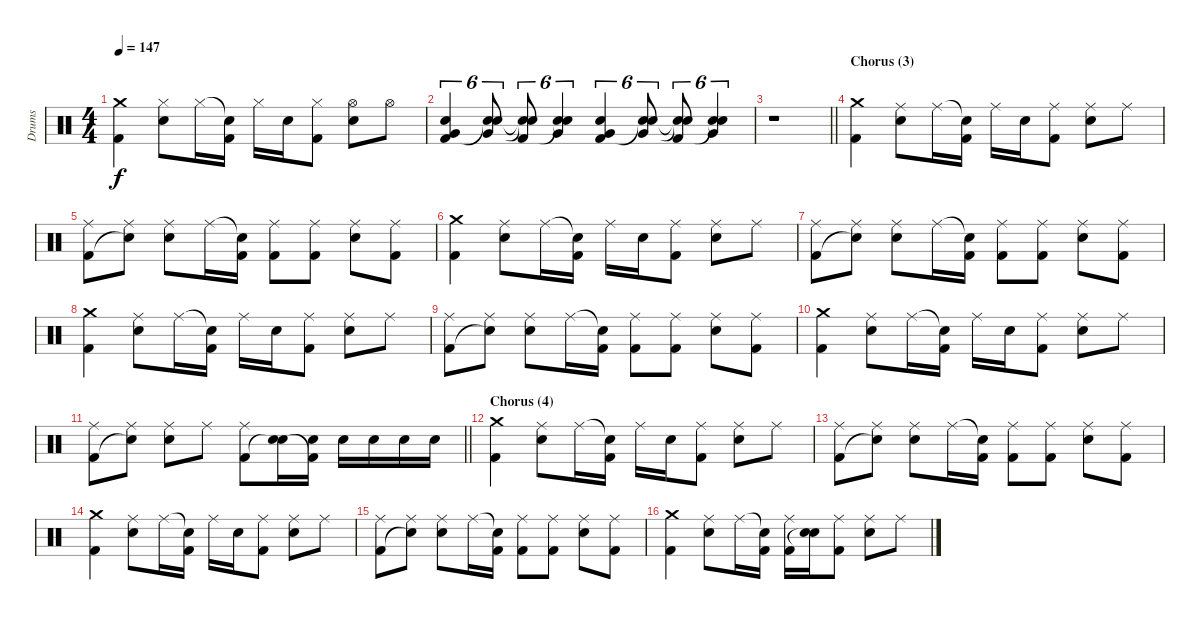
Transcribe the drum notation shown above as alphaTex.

\track ("Drums" "Drums") {instrument percussion}
\staff {score}
\articulation defaults
\ts (4 4)
\tempo 147
\clef neutral
\ks aminor
("Crash medium (hit)" "Kick (hit) 2").4{dy f} ("Hi-Hat (closed)" "Electric Snare (hit)").8 "Hi-Hat (closed)".16 ("Snare (hit)"{t} "Kick (hit) 2").16 "Hi-Hat (closed)".16 "Electric Snare (hit)".16 ("Hi-Hat (closed)" "Kick (hit) 2").8 ("Hi-Hat (open)" "Electric Snare (hit)").8 "Hi-Hat (open)".8 |
("Electric Snare (hit)" "Very Low Tom (hit)" "Kick (hit) 2").4{tu (6 4)} ("Electric Snare (hit)" "Very Low Tom (hit)" "Snare (hit)"{t}).8{tu (6 4)} ("Snare (hit)"{t} "Snare (hit)"{t} "Kick (hit) 2").8{tu (6 4)} ("Electric Snare (hit)" "Very Low Tom (hit)" "Snare (hit)"{t}).4{tu (6 4)} ("Electric Snare (hit)" "Very Low Tom (hit)" "Kick (hit) 2").4{tu (6 4)} ("Electric Snare (hit)" "Very Low Tom (hit)" "Snare (hit)"{t}).8{tu (6 4)} ("Snare (hit)"{t} "Snare (hit)"{t} "Kick (hit) 2").8{tu (6 4)} ("Electric Snare (hit)" "Very Low Tom (hit)" "Snare (hit)"{t}).4{tu (6 4)} |
\barLineRight lightlight
r.1 |
\section ("" "Chorus (3)")
("Crash medium (hit)" "Kick (hit) 2").4 ("Ride (middle)" "Electric Snare (hit)").8 "Ride (middle)".16 ("Snare (hit)"{t} "Kick (hit) 2").16 "Ride (middle)".16 "Electric Snare (hit)".16 ("Ride (middle)" "Kick (hit) 2").8 ("Ride (middle)" "Electric Snare (hit)").8 "Ride (middle)".8 |
("Ride (middle)" "Kick (hit) 2").8 ("Ride (middle)" "Snare (hit)"{t}).8 ("Ride (middle)" "Electric Snare (hit)").8 "Ride (middle)".16 ("Snare (hit)"{t} "Kick (hit) 2").16 ("Ride (middle)" "Kick (hit) 2").8 ("Ride (middle)" "Kick (hit) 2").8 ("Ride (middle)" "Electric Snare (hit)").8 ("Ride (middle)" "Kick (hit) 2").8 |
("Crash medium (hit)" "Kick (hit) 2").4 ("Ride (middle)" "Electric Snare (hit)").8 "Ride (middle)".16 ("Snare (hit)"{t} "Kick (hit) 2").16 "Ride (middle)".16 "Electric Snare (hit)".16 ("Ride (middle)" "Kick (hit) 2").8 ("Ride (middle)" "Electric Snare (hit)").8 "Ride (middle)".8 |
("Ride (middle)" "Kick (hit) 2").8 ("Ride (middle)" "Snare (hit)"{t}).8 ("Ride (middle)" "Electric Snare (hit)").8 "Ride (middle)".16 ("Snare (hit)"{t} "Kick (hit) 2").16 ("Ride (middle)" "Kick (hit) 2").8 ("Ride (middle)" "Kick (hit) 2").8 ("Ride (middle)" "Electric Snare (hit)").8 ("Ride (middle)" "Kick (hit) 2").8 |
("Crash medium (hit)" "Kick (hit) 2").4 ("Ride (middle)" "Electric Snare (hit)").8 "Ride (middle)".16 ("Snare (hit)"{t} "Kick (hit) 2").16 "Ride (middle)".16 "Electric Snare (hit)".16 ("Ride (middle)" "Kick (hit) 2").8 ("Ride (middle)" "Electric Snare (hit)").8 "Ride (middle)".8 |
("Ride (middle)" "Kick (hit) 2").8 ("Ride (middle)" "Snare (hit)"{t}).8 ("Ride (middle)" "Electric Snare (hit)").8 "Ride (middle)".16 ("Snare (hit)"{t} "Kick (hit) 2").16 ("Ride (middle)" "Kick (hit) 2").8 ("Ride (middle)" "Kick (hit) 2").8 ("Ride (middle)" "Electric Snare (hit)").8 ("Ride (middle)" "Kick (hit) 2").8 |
("Crash medium (hit)" "Kick (hit) 2").4 ("Ride (middle)" "Electric Snare (hit)").8 "Ride (middle)".16 ("Snare (hit)"{t} "Kick (hit) 2").16 "Ride (middle)".16 "Electric Snare (hit)".16 ("Ride (middle)" "Kick (hit) 2").8 ("Ride (middle)" "Electric Snare (hit)").8 "Ride (middle)".8 |
\barLineRight lightlight
("Ride (middle)" "Kick (hit) 2").8 ("Ride (middle)" "Snare (hit)"{t}).8 ("Ride (middle)" "Electric Snare (hit)").8 "Ride (middle)".8 ("Ride (middle)" "Kick (hit) 2").8 ("Electric Snare (hit)" "Snare (hit)"{t}).16 ("Electric Snare (hit)" "Kick (hit) 2"{t}).16 "Electric Snare (hit)".16 "Electric Snare (hit)".16 "Electric Snare (hit)".16 "Electric Snare (hit)".16 |
\section ("" "Chorus (4)")
("Crash medium (hit)" "Kick (hit) 2").4 ("Ride (middle)" "Electric Snare (hit)").8 "Ride (middle)".16 ("Snare (hit)"{t} "Kick (hit) 2").16 "Ride (middle)".16 "Electric Snare (hit)".16 ("Ride (middle)" "Kick (hit) 2").8 ("Ride (middle)" "Electric Snare (hit)").8 "Ride (middle)".8 |
("Ride (middle)" "Kick (hit) 2").8 ("Ride (middle)" "Snare (hit)"{t}).8 ("Ride (middle)" "Electric Snare (hit)").8 "Ride (middle)".16 ("Snare (hit)"{t} "Kick (hit) 2").16 ("Ride (middle)" "Kick (hit) 2").8 ("Ride (middle)" "Kick (hit) 2").8 ("Ride (middle)" "Electric Snare (hit)").8 ("Ride (middle)" "Kick (hit) 2").8 |
("Crash medium (hit)" "Kick (hit) 2").4 ("Ride (middle)" "Electric Snare (hit)").8 "Ride (middle)".16 ("Snare (hit)"{t} "Kick (hit) 2").16 "Ride (middle)".16 "Electric Snare (hit)".16 ("Ride (middle)" "Kick (hit) 2").8 ("Ride (middle)" "Electric Snare (hit)").8 "Ride (middle)".8 |
("Ride (middle)" "Kick (hit) 2").8 ("Ride (middle)" "Snare (hit)"{t}).8 ("Ride (middle)" "Electric Snare (hit)").8 "Ride (middle)".16 ("Snare (hit)"{t} "Kick (hit) 2").16 ("Ride (middle)" "Kick (hit) 2").8 ("Ride (middle)" "Kick (hit) 2").8 ("Ride (middle)" "Electric Snare (hit)").8 ("Ride (middle)" "Kick (hit) 2").8 |
("Crash medium (hit)" "Kick (hit) 2").4 ("Ride (middle)" "Electric Snare (hit)").8 "Ride (middle)".16 ("Snare (hit)"{t} "Kick (hit) 2").16 ("Ride (middle)" "Kick (hit) 2").16 ("Electric Snare (hit)" "Snare (hit)"{t}).16 ("Ride (middle)" "Kick (hit) 2").8 ("Ride (middle)" "Electric Snare (hit)").8 "Ride (middle)".8
